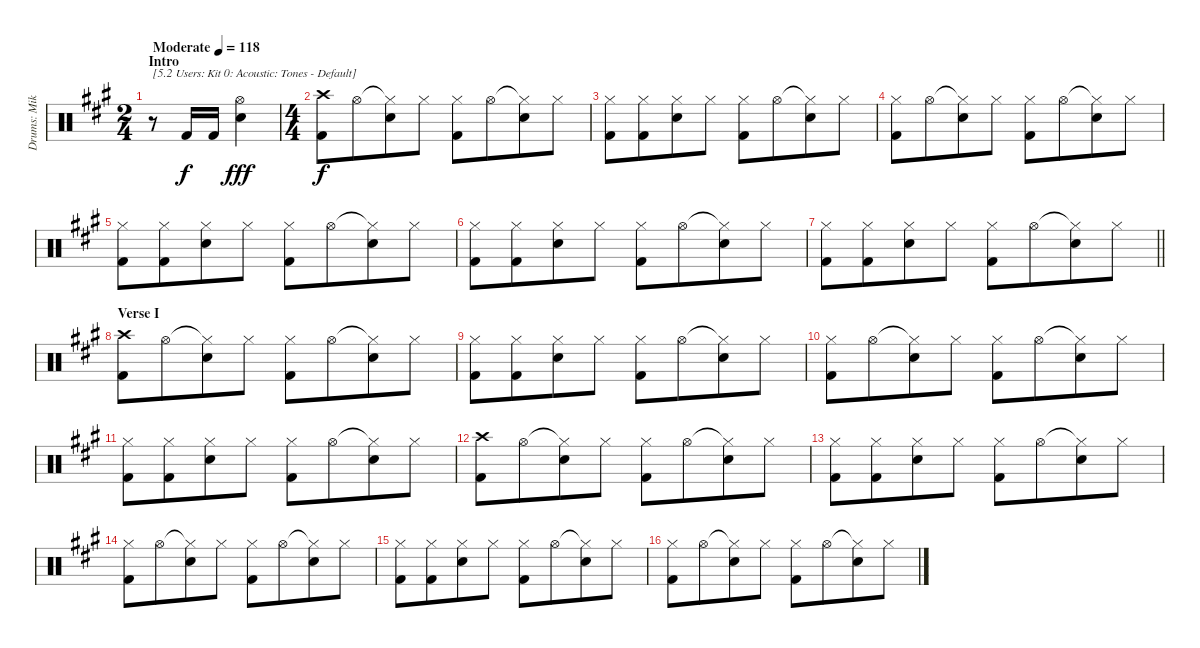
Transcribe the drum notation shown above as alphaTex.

\track ("Drums: Mike" "Drums: Mik") {instrument percussion}
\staff {score}
\articulation defaults
\ts (2 4)
\section ("" "Intro")
\tempo (118 "Moderate")
\clef neutral
\ks a
r.8{txt "[5.2 Users: Kit 0: Acoustic: Tones - Default]" dy f} "Kick (hit) 2".16 "Kick (hit) 2".16 ("Hi-Hat (open)" "Electric Snare (hit)").4{dy fff} |
\ts (4 4)
("Crash high (hit)" "Kick (hit) 2").8{dy f} "Hi-Hat (open)".8{beam merge} ("Hi-Hat (closed)"{t} "Electric Snare (hit)").8{beam merge} "Hi-Hat (closed)".8 ("Hi-Hat (closed)" "Kick (hit) 2").8 "Hi-Hat (open)".8{beam merge} ("Hi-Hat (closed)"{t} "Electric Snare (hit)").8{beam merge} "Hi-Hat (closed)".8 |
("Hi-Hat (closed)" "Kick (hit) 2").8 ("Hi-Hat (closed)" "Kick (hit) 2").8{beam merge} ("Hi-Hat (closed)" "Electric Snare (hit)").8{beam merge} "Hi-Hat (closed)".8 ("Hi-Hat (closed)" "Kick (hit) 2").8 "Hi-Hat (open)".8{beam merge} ("Hi-Hat (closed)"{t} "Electric Snare (hit)").8{beam merge} "Hi-Hat (closed)".8 |
("Hi-Hat (closed)" "Kick (hit) 2").8 "Hi-Hat (open)".8{beam merge} ("Hi-Hat (closed)"{t} "Electric Snare (hit)").8{beam merge} "Hi-Hat (closed)".8 ("Hi-Hat (closed)" "Kick (hit) 2").8 "Hi-Hat (open)".8{beam merge} ("Hi-Hat (closed)"{t} "Electric Snare (hit)").8{beam merge} "Hi-Hat (closed)".8 |
("Hi-Hat (closed)" "Kick (hit) 2").8 ("Hi-Hat (closed)" "Kick (hit) 2").8{beam merge} ("Hi-Hat (closed)" "Electric Snare (hit)").8{beam merge} "Hi-Hat (closed)".8 ("Hi-Hat (closed)" "Kick (hit) 2").8 "Hi-Hat (open)".8{beam merge} ("Hi-Hat (closed)"{t} "Electric Snare (hit)").8{beam merge} "Hi-Hat (closed)".8 |
("Hi-Hat (closed)" "Kick (hit) 2").8 ("Hi-Hat (closed)" "Kick (hit) 2").8{beam merge} ("Hi-Hat (closed)" "Electric Snare (hit)").8{beam merge} "Hi-Hat (closed)".8 ("Hi-Hat (closed)" "Kick (hit) 2").8 "Hi-Hat (open)".8{beam merge} ("Hi-Hat (closed)"{t} "Electric Snare (hit)").8{beam merge} "Hi-Hat (closed)".8 |
\barLineRight lightlight
("Hi-Hat (closed)" "Kick (hit) 2").8 ("Hi-Hat (closed)" "Kick (hit) 2").8{beam merge} ("Hi-Hat (closed)" "Electric Snare (hit)").8{beam merge} "Hi-Hat (closed)".8 ("Hi-Hat (closed)" "Kick (hit) 2").8 "Hi-Hat (open)".8{beam merge} ("Hi-Hat (closed)"{t} "Electric Snare (hit)").8{beam merge} "Hi-Hat (closed)".8 |
\section ("" "Verse I")
("Crash high (hit)" "Kick (hit) 2").8 "Hi-Hat (open)".8{beam merge} ("Hi-Hat (closed)"{t} "Electric Snare (hit)").8{beam merge} "Hi-Hat (closed)".8 ("Hi-Hat (closed)" "Kick (hit) 2").8 "Hi-Hat (open)".8{beam merge} ("Hi-Hat (closed)"{t} "Electric Snare (hit)").8{beam merge} "Hi-Hat (closed)".8 |
("Hi-Hat (closed)" "Kick (hit) 2").8 ("Hi-Hat (closed)" "Kick (hit) 2").8{beam merge} ("Hi-Hat (closed)" "Electric Snare (hit)").8{beam merge} "Hi-Hat (closed)".8 ("Hi-Hat (closed)" "Kick (hit) 2").8 "Hi-Hat (open)".8{beam merge} ("Hi-Hat (closed)"{t} "Electric Snare (hit)").8{beam merge} "Hi-Hat (closed)".8 |
("Hi-Hat (closed)" "Kick (hit) 2").8 "Hi-Hat (open)".8{beam merge} ("Hi-Hat (closed)"{t} "Electric Snare (hit)").8{beam merge} "Hi-Hat (closed)".8 ("Hi-Hat (closed)" "Kick (hit) 2").8 "Hi-Hat (open)".8{beam merge} ("Hi-Hat (closed)"{t} "Electric Snare (hit)").8{beam merge} "Hi-Hat (closed)".8 |
("Hi-Hat (closed)" "Kick (hit) 2").8 ("Hi-Hat (closed)" "Kick (hit) 2").8{beam merge} ("Hi-Hat (closed)" "Electric Snare (hit)").8{beam merge} "Hi-Hat (closed)".8 ("Hi-Hat (closed)" "Kick (hit) 2").8 "Hi-Hat (open)".8{beam merge} ("Hi-Hat (closed)"{t} "Electric Snare (hit)").8{beam merge} "Hi-Hat (closed)".8 |
("Crash high (hit)" "Kick (hit) 2").8 "Hi-Hat (open)".8{beam merge} ("Hi-Hat (closed)"{t} "Electric Snare (hit)").8{beam merge} "Hi-Hat (closed)".8 ("Hi-Hat (closed)" "Kick (hit) 2").8 "Hi-Hat (open)".8{beam merge} ("Hi-Hat (closed)"{t} "Electric Snare (hit)").8{beam merge} "Hi-Hat (closed)".8 |
("Hi-Hat (closed)" "Kick (hit) 2").8 ("Hi-Hat (closed)" "Kick (hit) 2").8{beam merge} ("Hi-Hat (closed)" "Electric Snare (hit)").8{beam merge} "Hi-Hat (closed)".8 ("Hi-Hat (closed)" "Kick (hit) 2").8 "Hi-Hat (open)".8{beam merge} ("Hi-Hat (closed)"{t} "Electric Snare (hit)").8{beam merge} "Hi-Hat (closed)".8 |
("Hi-Hat (closed)" "Kick (hit) 2").8 "Hi-Hat (open)".8{beam merge} ("Hi-Hat (closed)"{t} "Electric Snare (hit)").8{beam merge} "Hi-Hat (closed)".8 ("Hi-Hat (closed)" "Kick (hit) 2").8 "Hi-Hat (open)".8{beam merge} ("Hi-Hat (closed)"{t} "Electric Snare (hit)").8{beam merge} "Hi-Hat (closed)".8 |
("Hi-Hat (closed)" "Kick (hit) 2").8 ("Hi-Hat (closed)" "Kick (hit) 2").8{beam merge} ("Hi-Hat (closed)" "Electric Snare (hit)").8{beam merge} "Hi-Hat (closed)".8 ("Hi-Hat (closed)" "Kick (hit) 2").8 "Hi-Hat (open)".8{beam merge} ("Hi-Hat (closed)"{t} "Electric Snare (hit)").8{beam merge} "Hi-Hat (closed)".8 |
("Hi-Hat (closed)" "Kick (hit) 2").8 "Hi-Hat (open)".8{beam merge} ("Hi-Hat (closed)"{t} "Electric Snare (hit)").8{beam merge} "Hi-Hat (closed)".8 ("Hi-Hat (closed)" "Kick (hit) 2").8 "Hi-Hat (open)".8{beam merge} ("Hi-Hat (closed)"{t} "Electric Snare (hit)").8{beam merge} "Hi-Hat (closed)".8
